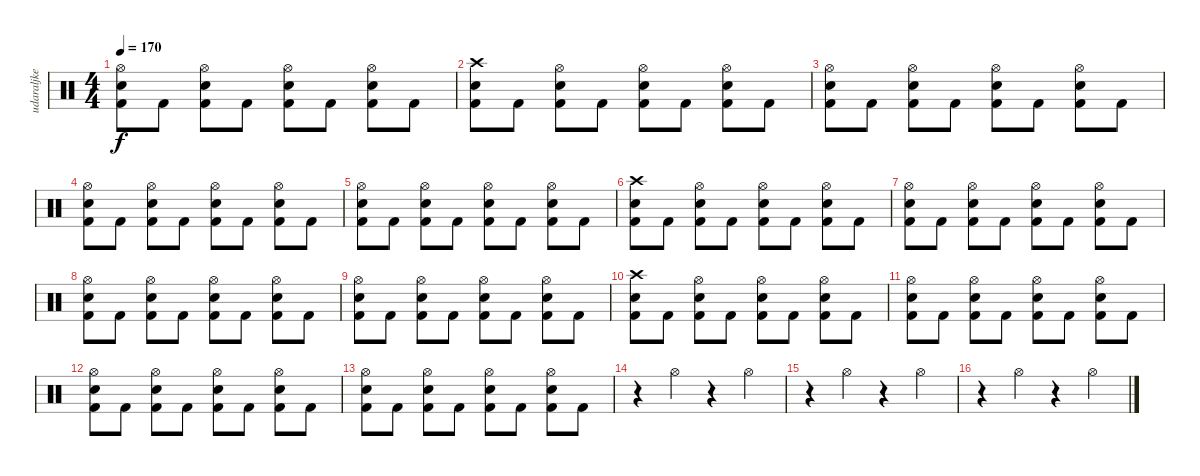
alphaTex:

\track ("udaraljke" "udaraljke") {instrument percussion}
\staff {score}
\articulation defaults
\ts (4 4)
\tempo 170
\clef neutral
\ks c
("Hi-Hat (open)" "Snare (hit) 2" "Kick (hit) 2").8{dy f} "Kick (hit) 2".8 ("Hi-Hat (open)" "Snare (hit) 2" "Kick (hit) 2").8 "Kick (hit) 2".8 ("Hi-Hat (open)" "Snare (hit) 2" "Kick (hit) 2").8 "Kick (hit) 2".8 ("Hi-Hat (open)" "Snare (hit) 2" "Kick (hit) 2").8 "Kick (hit) 2".8 |
("Crash high (hit)" "Snare (hit) 2" "Kick (hit) 2").8 "Kick (hit) 2".8 ("Hi-Hat (open)" "Snare (hit) 2" "Kick (hit) 2").8 "Kick (hit) 2".8 ("Hi-Hat (open)" "Snare (hit) 2" "Kick (hit) 2").8 "Kick (hit) 2".8 ("Hi-Hat (open)" "Snare (hit) 2" "Kick (hit) 2").8 "Kick (hit) 2".8 |
("Hi-Hat (open)" "Snare (hit) 2" "Kick (hit) 2").8 "Kick (hit) 2".8 ("Hi-Hat (open)" "Snare (hit) 2" "Kick (hit) 2").8 "Kick (hit) 2".8 ("Hi-Hat (open)" "Snare (hit) 2" "Kick (hit) 2").8 "Kick (hit) 2".8 ("Hi-Hat (open)" "Snare (hit) 2" "Kick (hit) 2").8 "Kick (hit) 2".8 |
("Hi-Hat (open)" "Snare (hit) 2" "Kick (hit) 2").8 "Kick (hit) 2".8 ("Hi-Hat (open)" "Snare (hit) 2" "Kick (hit) 2").8 "Kick (hit) 2".8 ("Hi-Hat (open)" "Snare (hit) 2" "Kick (hit) 2").8 "Kick (hit) 2".8 ("Hi-Hat (open)" "Snare (hit) 2" "Kick (hit) 2").8 "Kick (hit) 2".8 |
("Hi-Hat (open)" "Snare (hit) 2" "Kick (hit) 2").8 "Kick (hit) 2".8 ("Hi-Hat (open)" "Snare (hit) 2" "Kick (hit) 2").8 "Kick (hit) 2".8 ("Hi-Hat (open)" "Snare (hit) 2" "Kick (hit) 2").8 "Kick (hit) 2".8 ("Hi-Hat (open)" "Snare (hit) 2" "Kick (hit) 2").8 "Kick (hit) 2".8 |
("Crash high (hit)" "Snare (hit) 2" "Kick (hit) 2").8 "Kick (hit) 2".8 ("Hi-Hat (open)" "Snare (hit) 2" "Kick (hit) 2").8 "Kick (hit) 2".8 ("Hi-Hat (open)" "Snare (hit) 2" "Kick (hit) 2").8 "Kick (hit) 2".8 ("Hi-Hat (open)" "Snare (hit) 2" "Kick (hit) 2").8 "Kick (hit) 2".8 |
("Hi-Hat (open)" "Snare (hit) 2" "Kick (hit) 2").8 "Kick (hit) 2".8 ("Hi-Hat (open)" "Snare (hit) 2" "Kick (hit) 2").8 "Kick (hit) 2".8 ("Hi-Hat (open)" "Snare (hit) 2" "Kick (hit) 2").8 "Kick (hit) 2".8 ("Hi-Hat (open)" "Snare (hit) 2" "Kick (hit) 2").8 "Kick (hit) 2".8 |
("Hi-Hat (open)" "Snare (hit) 2" "Kick (hit) 2").8 "Kick (hit) 2".8 ("Hi-Hat (open)" "Snare (hit) 2" "Kick (hit) 2").8 "Kick (hit) 2".8 ("Hi-Hat (open)" "Snare (hit) 2" "Kick (hit) 2").8 "Kick (hit) 2".8 ("Hi-Hat (open)" "Snare (hit) 2" "Kick (hit) 2").8 "Kick (hit) 2".8 |
("Hi-Hat (open)" "Snare (hit) 2" "Kick (hit) 2").8 "Kick (hit) 2".8 ("Hi-Hat (open)" "Snare (hit) 2" "Kick (hit) 2").8 "Kick (hit) 2".8 ("Hi-Hat (open)" "Snare (hit) 2" "Kick (hit) 2").8 "Kick (hit) 2".8 ("Hi-Hat (open)" "Snare (hit) 2" "Kick (hit) 2").8 "Kick (hit) 2".8 |
("Crash high (hit)" "Snare (hit) 2" "Kick (hit) 2").8 "Kick (hit) 2".8 ("Hi-Hat (open)" "Snare (hit) 2" "Kick (hit) 2").8 "Kick (hit) 2".8 ("Hi-Hat (open)" "Snare (hit) 2" "Kick (hit) 2").8 "Kick (hit) 2".8 ("Hi-Hat (open)" "Snare (hit) 2" "Kick (hit) 2").8 "Kick (hit) 2".8 |
("Hi-Hat (open)" "Snare (hit) 2" "Kick (hit) 2").8 "Kick (hit) 2".8 ("Hi-Hat (open)" "Snare (hit) 2" "Kick (hit) 2").8 "Kick (hit) 2".8 ("Hi-Hat (open)" "Snare (hit) 2" "Kick (hit) 2").8 "Kick (hit) 2".8 ("Hi-Hat (open)" "Snare (hit) 2" "Kick (hit) 2").8 "Kick (hit) 2".8 |
("Hi-Hat (open)" "Snare (hit) 2" "Kick (hit) 2").8 "Kick (hit) 2".8 ("Hi-Hat (open)" "Snare (hit) 2" "Kick (hit) 2").8 "Kick (hit) 2".8 ("Hi-Hat (open)" "Snare (hit) 2" "Kick (hit) 2").8 "Kick (hit) 2".8 ("Hi-Hat (open)" "Snare (hit) 2" "Kick (hit) 2").8 "Kick (hit) 2".8 |
("Hi-Hat (open)" "Snare (hit) 2" "Kick (hit) 2").8 "Kick (hit) 2".8 ("Hi-Hat (open)" "Snare (hit) 2" "Kick (hit) 2").8 "Kick (hit) 2".8 ("Hi-Hat (open)" "Snare (hit) 2" "Kick (hit) 2").8 "Kick (hit) 2".8 ("Hi-Hat (open)" "Snare (hit) 2" "Kick (hit) 2").8 "Kick (hit) 2".8 |
r.4 "Hi-Hat (open)".4 r.4 "Hi-Hat (open)".4 |
r.4 "Hi-Hat (open)".4 r.4 "Hi-Hat (open)".4 |
r.4 "Hi-Hat (open)".4 r.4 "Hi-Hat (open)".4
